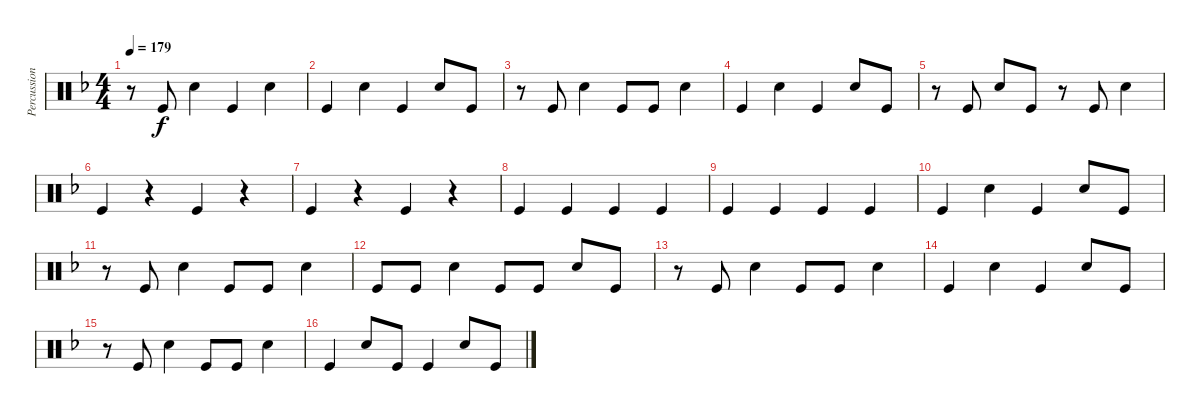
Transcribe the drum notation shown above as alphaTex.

\track ("Percussion 02" "Percussion") {instrument percussion}
\staff {score}
\articulation defaults
\ts (4 4)
\tempo 179
\clef neutral
\ks dminor
r.8{dy f} "Kick (hit)".8 "Snare (hit) 2".4 "Kick (hit)".4 "Snare (hit) 2".4 |
"Kick (hit)".4 "Snare (hit) 2".4 "Kick (hit)".4 "Snare (hit) 2".8 "Kick (hit)".8 |
r.8 "Kick (hit)".8 "Snare (hit) 2".4 "Kick (hit)".8 "Kick (hit)".8 "Snare (hit) 2".4 |
"Kick (hit)".4 "Snare (hit) 2".4 "Kick (hit)".4 "Snare (hit) 2".8 "Kick (hit)".8 |
r.8 "Kick (hit)".8 "Snare (hit) 2".8 "Kick (hit)".8 r.8 "Kick (hit)".8 "Snare (hit) 2".4 |
"Kick (hit)".4 r.4 "Kick (hit)".4 r.4 |
"Kick (hit)".4 r.4 "Kick (hit)".4 r.4 |
"Kick (hit)".4 "Kick (hit)".4 "Kick (hit)".4 "Kick (hit)".4 |
"Kick (hit)".4 "Kick (hit)".4 "Kick (hit)".4 "Kick (hit)".4 |
"Kick (hit)".4 "Snare (hit) 2".4 "Kick (hit)".4 "Snare (hit) 2".8 "Kick (hit)".8 |
r.8 "Kick (hit)".8 "Snare (hit) 2".4 "Kick (hit)".8 "Kick (hit)".8 "Snare (hit) 2".4 |
"Kick (hit)".8 "Kick (hit)".8 "Snare (hit) 2".4 "Kick (hit)".8 "Kick (hit)".8 "Snare (hit) 2".8 "Kick (hit)".8 |
r.8 "Kick (hit)".8 "Snare (hit) 2".4 "Kick (hit)".8 "Kick (hit)".8 "Snare (hit) 2".4 |
"Kick (hit)".4 "Snare (hit) 2".4 "Kick (hit)".4 "Snare (hit) 2".8 "Kick (hit)".8 |
r.8 "Kick (hit)".8 "Snare (hit) 2".4 "Kick (hit)".8 "Kick (hit)".8 "Snare (hit) 2".4 |
"Kick (hit)".4 "Snare (hit) 2".8 "Kick (hit)".8 "Kick (hit)".4 "Snare (hit) 2".8 "Kick (hit)".8
